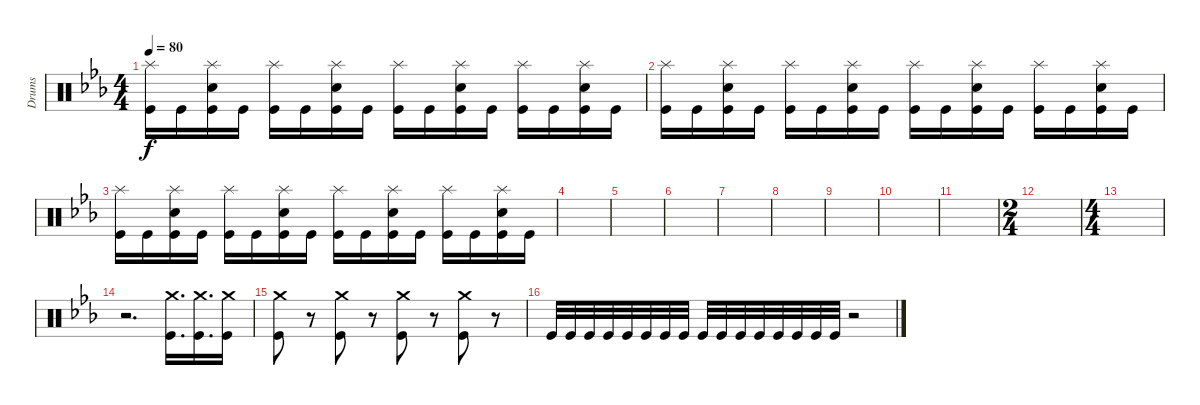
\track ("Drums" "Drums") {instrument percussion}
\staff {score}
\articulation defaults
\ts (4 4)
\tempo 80
\clef neutral
\ks eb
("Splash (hit)" "Kick (hit)").16{dy f} "Kick (hit)".16 ("Splash (hit)" "Electric Snare (hit)" "Kick (hit)").16 "Kick (hit)".16 ("Splash (hit)" "Kick (hit)").16 "Kick (hit)".16 ("Splash (hit)" "Electric Snare (hit)" "Kick (hit)").16 "Kick (hit)".16 ("Splash (hit)" "Kick (hit)").16 "Kick (hit)".16 ("Splash (hit)" "Electric Snare (hit)" "Kick (hit)").16 "Kick (hit)".16 ("Splash (hit)" "Kick (hit)").16 "Kick (hit)".16 ("Splash (hit)" "Electric Snare (hit)" "Kick (hit)").16 "Kick (hit)".16 |
("Splash (hit)" "Kick (hit)").16 "Kick (hit)".16 ("Splash (hit)" "Electric Snare (hit)" "Kick (hit)").16 "Kick (hit)".16 ("Splash (hit)" "Kick (hit)").16 "Kick (hit)".16 ("Splash (hit)" "Electric Snare (hit)" "Kick (hit)").16 "Kick (hit)".16 ("Splash (hit)" "Kick (hit)").16 "Kick (hit)".16 ("Splash (hit)" "Electric Snare (hit)" "Kick (hit)").16 "Kick (hit)".16 ("Splash (hit)" "Kick (hit)").16 "Kick (hit)".16 ("Splash (hit)" "Electric Snare (hit)" "Kick (hit)").16 "Kick (hit)".16 |
("Splash (hit)" "Kick (hit)").16 "Kick (hit)".16 ("Splash (hit)" "Electric Snare (hit)" "Kick (hit)").16 "Kick (hit)".16 ("Splash (hit)" "Kick (hit)").16 "Kick (hit)".16 ("Splash (hit)" "Electric Snare (hit)" "Kick (hit)").16 "Kick (hit)".16 ("Splash (hit)" "Kick (hit)").16 "Kick (hit)".16 ("Splash (hit)" "Electric Snare (hit)" "Kick (hit)").16 "Kick (hit)".16 ("Splash (hit)" "Kick (hit)").16 "Kick (hit)".16 ("Splash (hit)" "Electric Snare (hit)" "Kick (hit)").16 "Kick (hit)".16 |
|
|
|
|
|
|
|
|
\ts (2 4)
|
\ts (4 4)
|
r.2{d} ("Crash medium (hit)" "Kick (hit)").16{d} ("Crash medium (hit)" "Kick (hit)").16{d} ("Crash medium (hit)" "Kick (hit)").16 |
("Crash medium (hit)" "Kick (hit)").8 r.8{volume 0} ("Crash medium (hit)" "Kick (hit)").8{volume 13} r.8{volume 0} ("Crash medium (hit)" "Kick (hit)").8{volume 13} r.8{volume 0} ("Crash medium (hit)" "Kick (hit)").8{volume 13} r.8{volume 0} |
"Kick (hit)".32{volume 13} "Kick (hit)".32 "Kick (hit)".32 "Kick (hit)".32 "Kick (hit)".32 "Kick (hit)".32 "Kick (hit)".32 "Kick (hit)".32 "Kick (hit)".32 "Kick (hit)".32 "Kick (hit)".32 "Kick (hit)".32 "Kick (hit)".32 "Kick (hit)".32 "Kick (hit)".32 "Kick (hit)".32 r.2
